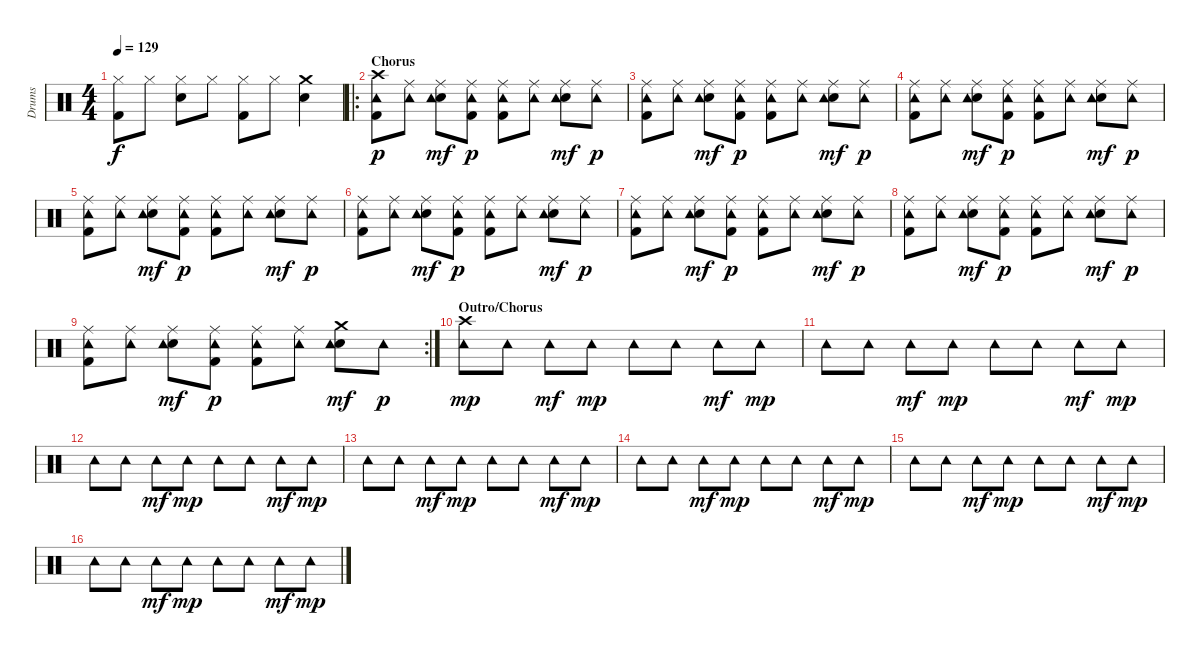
\track ("Drums" "Drums") {instrument percussion}
\staff {score}
\articulation defaults
\ts (4 4)
\tempo 129
\clef neutral
\ks c
("Kick (hit) 2" "Hi-Hat (closed)").8{dy f} "Hi-Hat (closed)".8 ("Snare (hit) 2" "Hi-Hat (closed)").8 "Hi-Hat (closed)".8 ("Kick (hit) 2" "Hi-Hat (closed)").8 "Hi-Hat (closed)".8 ("Crash medium (hit)" "Snare (hit) 2").4 |
\ro
\section ("" "Chorus")
("Kick (hit) 2" "Crash high (hit)" "Tambourine (hit)").8{dy p} ("Ride (middle)" "Tambourine (hit)").8 ("Ride (middle)" "Snare (hit) 2" "Tambourine (hit)").8{dy mf} ("Kick (hit) 2" "Ride (middle)" "Tambourine (hit)").8{dy p} ("Kick (hit) 2" "Ride (middle)" "Tambourine (hit)").8 ("Ride (middle)" "Tambourine (hit)").8 ("Ride (middle)" "Snare (hit) 2" "Tambourine (hit)").8{dy mf} ("Ride (middle)" "Tambourine (hit)").8{dy p} |
("Kick (hit) 2" "Ride (middle)" "Tambourine (hit)").8 ("Ride (middle)" "Tambourine (hit)").8 ("Ride (middle)" "Snare (hit) 2" "Tambourine (hit)").8{dy mf} ("Kick (hit) 2" "Ride (middle)" "Tambourine (hit)").8{dy p} ("Kick (hit) 2" "Ride (middle)" "Tambourine (hit)").8 ("Ride (middle)" "Tambourine (hit)").8 ("Ride (middle)" "Snare (hit) 2" "Tambourine (hit)").8{dy mf} ("Ride (middle)" "Tambourine (hit)").8{dy p} |
("Kick (hit) 2" "Ride (middle)" "Tambourine (hit)").8 ("Ride (middle)" "Tambourine (hit)").8 ("Ride (middle)" "Snare (hit) 2" "Tambourine (hit)").8{dy mf} ("Kick (hit) 2" "Ride (middle)" "Tambourine (hit)").8{dy p} ("Kick (hit) 2" "Ride (middle)" "Tambourine (hit)").8 ("Ride (middle)" "Tambourine (hit)").8 ("Ride (middle)" "Snare (hit) 2" "Tambourine (hit)").8{dy mf} ("Ride (middle)" "Tambourine (hit)").8{dy p} |
("Kick (hit) 2" "Ride (middle)" "Tambourine (hit)").8 ("Ride (middle)" "Tambourine (hit)").8 ("Ride (middle)" "Snare (hit) 2" "Tambourine (hit)").8{dy mf} ("Kick (hit) 2" "Ride (middle)" "Tambourine (hit)").8{dy p} ("Kick (hit) 2" "Ride (middle)" "Tambourine (hit)").8 ("Ride (middle)" "Tambourine (hit)").8 ("Ride (middle)" "Snare (hit) 2" "Tambourine (hit)").8{dy mf} ("Ride (middle)" "Tambourine (hit)").8{dy p} |
("Kick (hit) 2" "Ride (middle)" "Tambourine (hit)").8 ("Ride (middle)" "Tambourine (hit)").8 ("Ride (middle)" "Snare (hit) 2" "Tambourine (hit)").8{dy mf} ("Kick (hit) 2" "Ride (middle)" "Tambourine (hit)").8{dy p} ("Kick (hit) 2" "Ride (middle)" "Tambourine (hit)").8 ("Ride (middle)" "Tambourine (hit)").8 ("Ride (middle)" "Snare (hit) 2" "Tambourine (hit)").8{dy mf} ("Ride (middle)" "Tambourine (hit)").8{dy p} |
("Kick (hit) 2" "Ride (middle)" "Tambourine (hit)").8 ("Ride (middle)" "Tambourine (hit)").8 ("Ride (middle)" "Snare (hit) 2" "Tambourine (hit)").8{dy mf} ("Kick (hit) 2" "Ride (middle)" "Tambourine (hit)").8{dy p} ("Kick (hit) 2" "Ride (middle)" "Tambourine (hit)").8 ("Ride (middle)" "Tambourine (hit)").8 ("Ride (middle)" "Snare (hit) 2" "Tambourine (hit)").8{dy mf} ("Ride (middle)" "Tambourine (hit)").8{dy p} |
("Kick (hit) 2" "Ride (middle)" "Tambourine (hit)").8 ("Ride (middle)" "Tambourine (hit)").8 ("Ride (middle)" "Snare (hit) 2" "Tambourine (hit)").8{dy mf} ("Kick (hit) 2" "Ride (middle)" "Tambourine (hit)").8{dy p} ("Kick (hit) 2" "Ride (middle)" "Tambourine (hit)").8 ("Ride (middle)" "Tambourine (hit)").8 ("Ride (middle)" "Snare (hit) 2" "Tambourine (hit)").8{dy mf} ("Ride (middle)" "Tambourine (hit)").8{dy p} |
\rc 2
("Kick (hit) 2" "Ride (middle)" "Tambourine (hit)").8 ("Ride (middle)" "Tambourine (hit)").8 ("Ride (middle)" "Snare (hit) 2" "Tambourine (hit)").8{dy mf} ("Kick (hit) 2" "Ride (middle)" "Tambourine (hit)").8{dy p} ("Kick (hit) 2" "Ride (middle)" "Tambourine (hit)").8 ("Ride (middle)" "Tambourine (hit)").8 ("Crash medium (hit)" "Snare (hit) 2" "Tambourine (hit)").8{dy mf} "Tambourine (hit)".8{dy p} |
\section ("" "Outro/Chorus")
("Crash high (hit)" "Tambourine (hit)").8{dy mp} "Tambourine (hit)".8 "Tambourine (hit)".8{dy mf} "Tambourine (hit)".8{dy mp} "Tambourine (hit)".8 "Tambourine (hit)".8 "Tambourine (hit)".8{dy mf} "Tambourine (hit)".8{dy mp} |
"Tambourine (hit)".8 "Tambourine (hit)".8 "Tambourine (hit)".8{dy mf} "Tambourine (hit)".8{dy mp} "Tambourine (hit)".8 "Tambourine (hit)".8 "Tambourine (hit)".8{dy mf} "Tambourine (hit)".8{dy mp} |
"Tambourine (hit)".8 "Tambourine (hit)".8 "Tambourine (hit)".8{dy mf} "Tambourine (hit)".8{dy mp} "Tambourine (hit)".8 "Tambourine (hit)".8 "Tambourine (hit)".8{dy mf} "Tambourine (hit)".8{dy mp} |
"Tambourine (hit)".8 "Tambourine (hit)".8 "Tambourine (hit)".8{dy mf} "Tambourine (hit)".8{dy mp} "Tambourine (hit)".8 "Tambourine (hit)".8 "Tambourine (hit)".8{dy mf} "Tambourine (hit)".8{dy mp} |
"Tambourine (hit)".8 "Tambourine (hit)".8 "Tambourine (hit)".8{dy mf} "Tambourine (hit)".8{dy mp} "Tambourine (hit)".8 "Tambourine (hit)".8 "Tambourine (hit)".8{dy mf} "Tambourine (hit)".8{dy mp} |
"Tambourine (hit)".8 "Tambourine (hit)".8 "Tambourine (hit)".8{dy mf} "Tambourine (hit)".8{dy mp} "Tambourine (hit)".8 "Tambourine (hit)".8 "Tambourine (hit)".8{dy mf} "Tambourine (hit)".8{dy mp} |
"Tambourine (hit)".8 "Tambourine (hit)".8 "Tambourine (hit)".8{dy mf} "Tambourine (hit)".8{dy mp} "Tambourine (hit)".8 "Tambourine (hit)".8 "Tambourine (hit)".8{dy mf} "Tambourine (hit)".8{dy mp}
